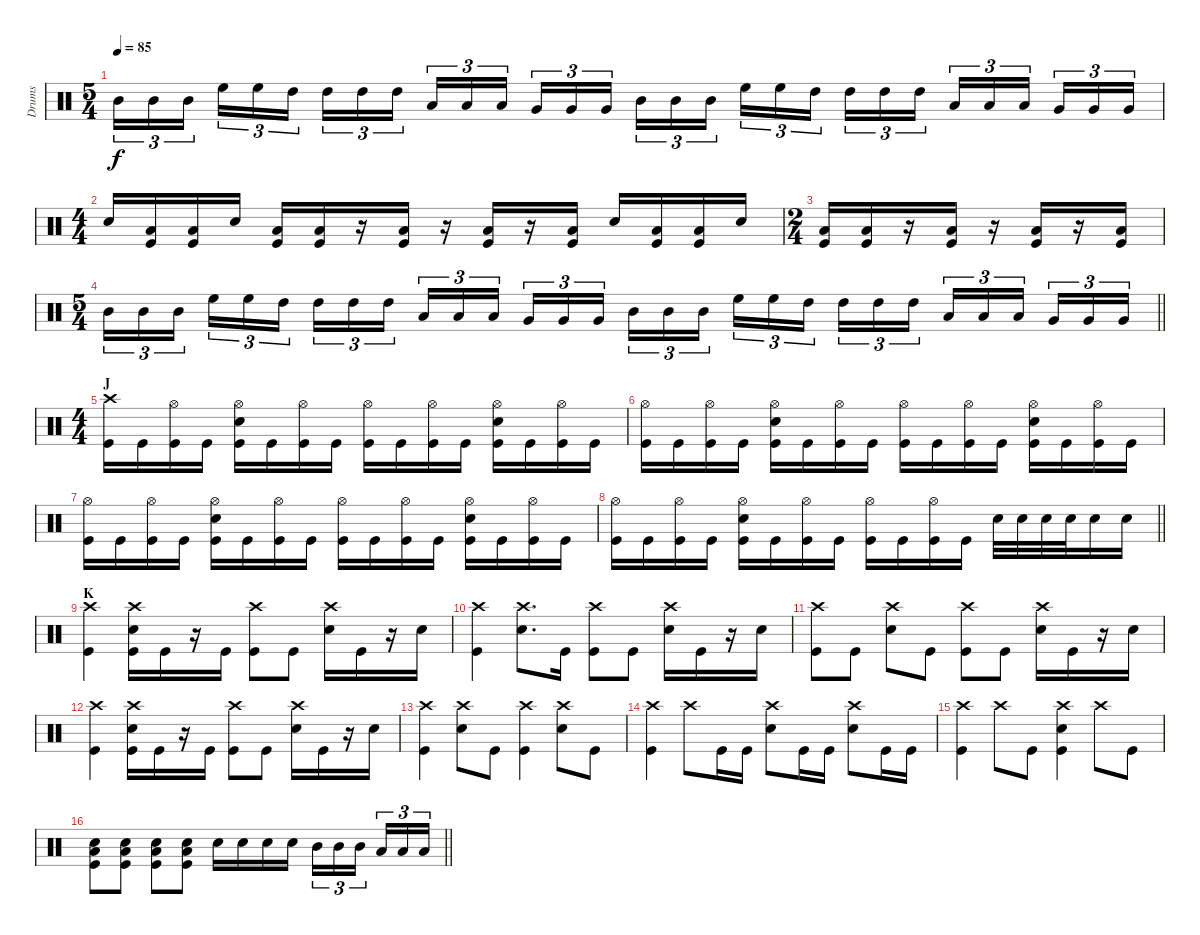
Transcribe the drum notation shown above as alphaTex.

\track ("Drums" "Drums") {instrument percussion}
\staff {score}
\articulation defaults
\ts (5 4)
\tempo 85
\clef neutral
\ks c "Mid Tom (hit)".16{tu (3 2) dy f} "Mid Tom (hit)".16{tu (3 2)} "Mid Tom (hit)".16{tu (3 2) beam splitsecondary} "High Floor Tom (hit)".16{tu (3 2)} "High Floor Tom (hit)".16{tu (3 2)} "High Tom (hit)".16{tu (3 2)} "High Tom (hit)".16{tu (3 2)} "High Tom (hit)".16{tu (3 2)} "High Tom (hit)".16{tu (3 2) beam splitsecondary} "Low Tom (hit)".16{tu (3 2)} "Low Tom (hit)".16{tu (3 2)} "Low Tom (hit)".16{tu (3 2)} "Very Low Tom (hit)".16{tu (3 2)} "Very Low Tom (hit)".16{tu (3 2)} "Very Low Tom (hit)".16{tu (3 2) beam splitsecondary} "Mid Tom (hit)".16{tu (3 2)} "Mid Tom (hit)".16{tu (3 2)} "Mid Tom (hit)".16{tu (3 2)} "High Floor Tom (hit)".16{tu (3 2)} "High Floor Tom (hit)".16{tu (3 2)} "High Tom (hit)".16{tu (3 2) beam splitsecondary} "High Tom (hit)".16{tu (3 2)} "High Tom (hit)".16{tu (3 2)} "High Tom (hit)".16{tu (3 2)} "Low Tom (hit)".16{tu (3 2)} "Low Tom (hit)".16{tu (3 2)} "Low Tom (hit)".16{tu (3 2) beam splitsecondary} "Very Low Tom (hit)".16{tu (3 2)} "Very Low Tom (hit)".16{tu (3 2)} "Very Low Tom (hit)".16{tu (3 2)}
|
\ts (4 4)
"Snare (hit) 2".16 ("Kick (hit)" "Low Floor Tom (hit)").16 ("Kick (hit)" "Low Floor Tom (hit)").16 "Snare (hit) 2".16 ("Kick (hit)" "Low Floor Tom (hit)").16 ("Kick (hit)" "Low Floor Tom (hit)").16 r.16 ("Kick (hit)" "Low Floor Tom (hit)").16 r.16 ("Kick (hit)" "Low Floor Tom (hit)").16 r.16 ("Kick (hit)" "Low Floor Tom (hit)").16 "Snare (hit) 2".16 ("Kick (hit)" "Low Floor Tom (hit)").16 ("Kick (hit)" "Low Floor Tom (hit)").16 "Snare (hit) 2".16 |
\ts (2 4)
("Kick (hit)" "Low Floor Tom (hit)").16 ("Kick (hit)" "Low Floor Tom (hit)").16 r.16 ("Kick (hit)" "Low Floor Tom (hit)").16 r.16 ("Kick (hit)" "Low Floor Tom (hit)").16 r.16 ("Kick (hit)" "Low Floor Tom (hit)").16 |
\ts (5 4)
\barLineRight lightlight "Mid Tom (hit)".16{tu (3 2)} "Mid Tom (hit)".16{tu (3 2)} "Mid Tom (hit)".16{tu (3 2) beam splitsecondary} "High Floor Tom (hit)".16{tu (3 2)} "High Floor Tom (hit)".16{tu (3 2)} "High Tom (hit)".16{tu (3 2)} "High Tom (hit)".16{tu (3 2)} "High Tom (hit)".16{tu (3 2)} "High Tom (hit)".16{tu (3 2) beam splitsecondary} "Low Tom (hit)".16{tu (3 2)} "Low Tom (hit)".16{tu (3 2)} "Low Tom (hit)".16{tu (3 2)} "Very Low Tom (hit)".16{tu (3 2)} "Very Low Tom (hit)".16{tu (3 2)} "Very Low Tom (hit)".16{tu (3 2) beam splitsecondary} "Mid Tom (hit)".16{tu (3 2)} "Mid Tom (hit)".16{tu (3 2)} "Mid Tom (hit)".16{tu (3 2)} "High Floor Tom (hit)".16{tu (3 2)} "High Floor Tom (hit)".16{tu (3 2)} "High Tom (hit)".16{tu (3 2) beam splitsecondary} "High Tom (hit)".16{tu (3 2)} "High Tom (hit)".16{tu (3 2)} "High Tom (hit)".16{tu (3 2)} "Low Tom (hit)".16{tu (3 2)} "Low Tom (hit)".16{tu (3 2)} "Low Tom (hit)".16{tu (3 2) beam splitsecondary} "Very Low Tom (hit)".16{tu (3 2)} "Very Low Tom (hit)".16{tu (3 2)} "Very Low Tom (hit)".16{tu (3 2)}
|
\ts (4 4)
\section ("" "J")
("Crash high (hit)" "Kick (hit)").16 "Kick (hit)".16 ("Hi-Hat (open)" "Kick (hit)").16 "Kick (hit)".16 ("Snare (hit) 2" "Hi-Hat (open)" "Kick (hit)").16 "Kick (hit)".16 ("Hi-Hat (open)" "Kick (hit)").16 "Kick (hit)".16 ("Hi-Hat (open)" "Kick (hit)").16 "Kick (hit)".16 ("Hi-Hat (open)" "Kick (hit)").16 "Kick (hit)".16 ("Snare (hit) 2" "Hi-Hat (open)" "Kick (hit)").16 "Kick (hit)".16 ("Hi-Hat (open)" "Kick (hit)").16 "Kick (hit)".16 |
("Hi-Hat (open)" "Kick (hit)").16 "Kick (hit)".16 ("Hi-Hat (open)" "Kick (hit)").16 "Kick (hit)".16 ("Snare (hit) 2" "Hi-Hat (open)" "Kick (hit)").16 "Kick (hit)".16 ("Hi-Hat (open)" "Kick (hit)").16 "Kick (hit)".16 ("Hi-Hat (open)" "Kick (hit)").16 "Kick (hit)".16 ("Hi-Hat (open)" "Kick (hit)").16 "Kick (hit)".16 ("Snare (hit) 2" "Hi-Hat (open)" "Kick (hit)").16 "Kick (hit)".16 ("Hi-Hat (open)" "Kick (hit)").16 "Kick (hit)".16 |
("Hi-Hat (open)" "Kick (hit)").16 "Kick (hit)".16 ("Hi-Hat (open)" "Kick (hit)").16 "Kick (hit)".16 ("Snare (hit) 2" "Hi-Hat (open)" "Kick (hit)").16 "Kick (hit)".16 ("Hi-Hat (open)" "Kick (hit)").16 "Kick (hit)".16 ("Hi-Hat (open)" "Kick (hit)").16 "Kick (hit)".16 ("Hi-Hat (open)" "Kick (hit)").16 "Kick (hit)".16 ("Snare (hit) 2" "Hi-Hat (open)" "Kick (hit)").16 "Kick (hit)".16 ("Hi-Hat (open)" "Kick (hit)").16 "Kick (hit)".16 |
\barLineRight lightlight
("Hi-Hat (open)" "Kick (hit)").16 "Kick (hit)".16 ("Hi-Hat (open)" "Kick (hit)").16 "Kick (hit)".16 ("Snare (hit) 2" "Hi-Hat (open)" "Kick (hit)").16 "Kick (hit)".16 ("Hi-Hat (open)" "Kick (hit)").16 "Kick (hit)".16 ("Hi-Hat (open)" "Kick (hit)").16 "Kick (hit)".16 ("Hi-Hat (open)" "Kick (hit)").16 "Kick (hit)".16 "Snare (hit) 2".32 "Snare (hit) 2".32 "Snare (hit) 2".32 "Snare (hit) 2".32 "Snare (hit) 2".16 "Snare (hit) 2".16 |
\section ("" "K")
("Crash high (hit)" "Kick (hit)").4 ("Snare (hit) 2" "Kick (hit)" "Crash high (hit)").16 "Kick (hit)".16 r.16 "Kick (hit)".16 ("Crash high (hit)" "Kick (hit)").8 "Kick (hit)".8 ("Crash high (hit)" "Snare (hit) 2").16 "Kick (hit)".16 r.16 "Snare (hit) 2".16 |
("Crash high (hit)" "Kick (hit)").4 ("Snare (hit) 2" "Crash high (hit)").8{d} "Kick (hit)".16 ("Kick (hit)" "Crash high (hit)").8 "Kick (hit)".8 ("Crash high (hit)" "Snare (hit) 2").16 "Kick (hit)".16 r.16 "Snare (hit) 2".16 |
("Crash high (hit)" "Kick (hit)").8 "Kick (hit)".8 ("Crash high (hit)" "Snare (hit) 2").8 "Kick (hit)".8 ("Crash high (hit)" "Kick (hit)").8 "Kick (hit)".8 ("Crash high (hit)" "Snare (hit) 2").16 "Kick (hit)".16 r.16 "Snare (hit) 2".16 |
("Crash high (hit)" "Kick (hit)").4 ("Snare (hit) 2" "Kick (hit)" "Crash high (hit)").16 "Kick (hit)".16 r.16 "Kick (hit)".16 ("Crash high (hit)" "Kick (hit)").8 "Kick (hit)".8 ("Crash high (hit)" "Snare (hit) 2").16 "Kick (hit)".16 r.16 "Snare (hit) 2".16 |
("Crash high (hit)" "Kick (hit)").4 ("Snare (hit) 2" "Crash high (hit)").8 "Kick (hit)".8 ("Crash high (hit)" "Kick (hit)").4 ("Snare (hit) 2" "Crash high (hit)").8 "Kick (hit)".8 |
("Crash high (hit)" "Kick (hit)").4 "Crash high (hit)".8 "Kick (hit)".16 "Kick (hit)".16 ("Crash high (hit)" "Snare (hit) 2").8 "Kick (hit)".16 "Kick (hit)".16 ("Crash high (hit)" "Snare (hit) 2").8 "Kick (hit)".16 "Kick (hit)".16 |
("Crash high (hit)" "Kick (hit)").4 "Crash high (hit)".8 "Kick (hit)".8 ("Snare (hit) 2" "Crash high (hit)" "Kick (hit)").4 "Crash high (hit)".8 "Kick (hit)".8 |
\barLineRight lightlight
("Low Floor Tom (hit)" "Kick (hit)" "Snare (hit) 2").8 ("Low Floor Tom (hit)" "Kick (hit)" "Snare (hit) 2").8 ("Low Floor Tom (hit)" "Kick (hit)" "Snare (hit) 2").8 ("Low Floor Tom (hit)" "Kick (hit)" "Snare (hit) 2").8 "Snare (hit) 2".16 "Snare (hit) 2".16 "Snare (hit) 2".16 "Snare (hit) 2".16 "Mid Tom (hit)".16{tu (3 2)} "Mid Tom (hit)".16{tu (3 2)} "Mid Tom (hit)".16{tu (3 2) beam splitsecondary} "Low Tom (hit)".16{tu (3 2)} "Low Tom (hit)".16{tu (3 2)} "Low Tom (hit)".16{tu (3 2)}
